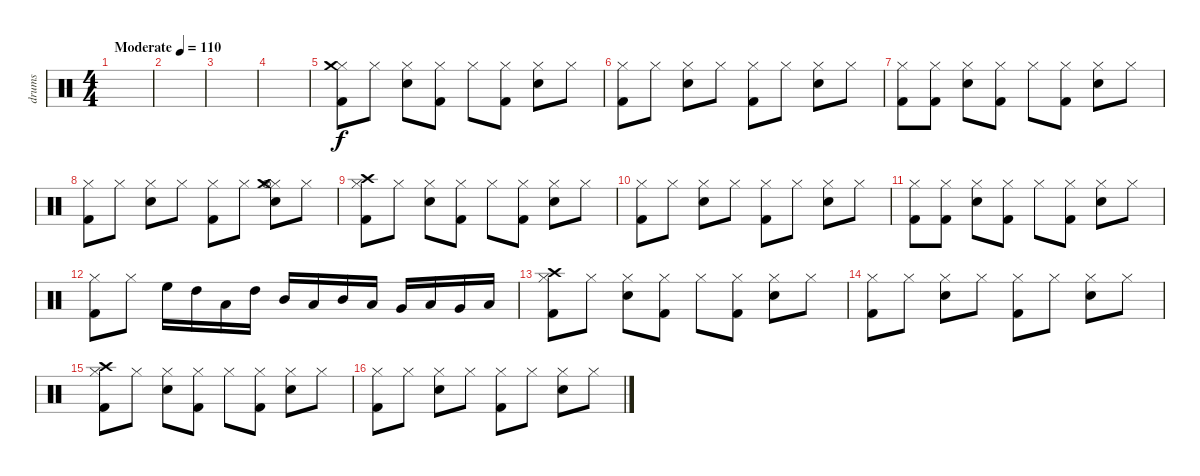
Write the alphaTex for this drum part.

\track ("drums" "drums") {instrument percussion}
\staff {score}
\articulation defaults
\ts (4 4)
\tempo (110 "Moderate")
\clef neutral
\ks c
|
|
|
|
("Hi-Hat (closed)" "Crash medium (hit)" "Kick (hit) 2").8 "Hi-Hat (closed)".8 ("Hi-Hat (closed)" "Electric Snare (hit)").8 ("Hi-Hat (closed)" "Kick (hit) 2").8 "Hi-Hat (closed)".8 ("Hi-Hat (closed)" "Kick (hit) 2").8 ("Hi-Hat (closed)" "Electric Snare (hit)").8 "Hi-Hat (closed)".8 |
("Hi-Hat (closed)" "Kick (hit) 2").8 "Hi-Hat (closed)".8 ("Hi-Hat (closed)" "Electric Snare (hit)").8 "Hi-Hat (closed)".8 ("Hi-Hat (closed)" "Kick (hit) 2").8 "Hi-Hat (closed)".8 ("Hi-Hat (closed)" "Electric Snare (hit)").8 "Hi-Hat (closed)".8 |
("Hi-Hat (closed)" "Kick (hit) 2").8 ("Hi-Hat (closed)" "Kick (hit) 2").8 ("Hi-Hat (closed)" "Electric Snare (hit)").8 ("Hi-Hat (closed)" "Kick (hit) 2").8 "Hi-Hat (closed)".8 ("Hi-Hat (closed)" "Kick (hit) 2").8 ("Hi-Hat (closed)" "Electric Snare (hit)").8 "Hi-Hat (closed)".8 |
("Hi-Hat (closed)" "Kick (hit) 2").8 "Hi-Hat (closed)".8 ("Hi-Hat (closed)" "Electric Snare (hit)").8 "Hi-Hat (closed)".8 ("Hi-Hat (closed)" "Kick (hit) 2").8 "Hi-Hat (closed)".8 ("Hi-Hat (closed)" "Hi-Hat (open)" "Electric Snare (hit)" "Crash medium (hit)").8 "Hi-Hat (closed)".8 |
("Hi-Hat (closed)" "Crash high (hit)" "Kick (hit) 2").8 "Hi-Hat (closed)".8 ("Hi-Hat (closed)" "Electric Snare (hit)").8 ("Hi-Hat (closed)" "Kick (hit) 2").8 "Hi-Hat (closed)".8 ("Hi-Hat (closed)" "Kick (hit) 2").8 ("Hi-Hat (closed)" "Electric Snare (hit)").8 "Hi-Hat (closed)".8 |
("Hi-Hat (closed)" "Kick (hit) 2").8 "Hi-Hat (closed)".8 ("Hi-Hat (closed)" "Electric Snare (hit)").8 "Hi-Hat (closed)".8 ("Hi-Hat (closed)" "Kick (hit) 2").8 "Hi-Hat (closed)".8 ("Hi-Hat (closed)" "Electric Snare (hit)").8 "Hi-Hat (closed)".8 |
("Hi-Hat (closed)" "Kick (hit) 2").8 ("Hi-Hat (closed)" "Kick (hit) 2").8 ("Hi-Hat (closed)" "Electric Snare (hit)").8 ("Hi-Hat (closed)" "Kick (hit) 2").8 "Hi-Hat (closed)".8 ("Hi-Hat (closed)" "Kick (hit) 2").8 ("Hi-Hat (closed)" "Electric Snare (hit)").8 "Hi-Hat (closed)".8 |
("Hi-Hat (closed)" "Kick (hit) 2").8 "Hi-Hat (closed)".8 "High Floor Tom (hit)".16 "High Tom (hit)".16 "Low Tom (hit)".16 "High Tom (hit)".16 "Mid Tom (hit)".16 "Low Tom (hit)".16 "Mid Tom (hit)".16 "Low Tom (hit)".16 "Very Low Tom (hit)".16 "Low Tom (hit)".16 "Very Low Tom (hit)".16 "Low Floor Tom (hit)".16 |
("Hi-Hat (closed)" "Crash high (hit)" "Kick (hit) 2").8 "Hi-Hat (closed)".8 ("Hi-Hat (closed)" "Electric Snare (hit)").8 ("Hi-Hat (closed)" "Kick (hit) 2").8 "Hi-Hat (closed)".8 ("Hi-Hat (closed)" "Kick (hit) 2").8 ("Hi-Hat (closed)" "Electric Snare (hit)").8 "Hi-Hat (closed)".8 |
("Hi-Hat (closed)" "Kick (hit) 2").8 "Hi-Hat (closed)".8 ("Hi-Hat (closed)" "Electric Snare (hit)").8 "Hi-Hat (closed)".8 ("Hi-Hat (closed)" "Kick (hit) 2").8 "Hi-Hat (closed)".8 ("Hi-Hat (closed)" "Electric Snare (hit)").8 "Hi-Hat (closed)".8 |
("Hi-Hat (closed)" "Crash high (hit)" "Kick (hit) 2").8 "Hi-Hat (closed)".8 ("Hi-Hat (closed)" "Electric Snare (hit)").8 ("Hi-Hat (closed)" "Kick (hit) 2").8 "Hi-Hat (closed)".8 ("Hi-Hat (closed)" "Kick (hit) 2").8 ("Hi-Hat (closed)" "Electric Snare (hit)").8 "Hi-Hat (closed)".8 |
("Hi-Hat (closed)" "Kick (hit) 2").8 "Hi-Hat (closed)".8 ("Hi-Hat (closed)" "Electric Snare (hit)").8 "Hi-Hat (closed)".8 ("Hi-Hat (closed)" "Kick (hit) 2").8 "Hi-Hat (closed)".8 ("Hi-Hat (closed)" "Electric Snare (hit)").8 "Hi-Hat (closed)".8
